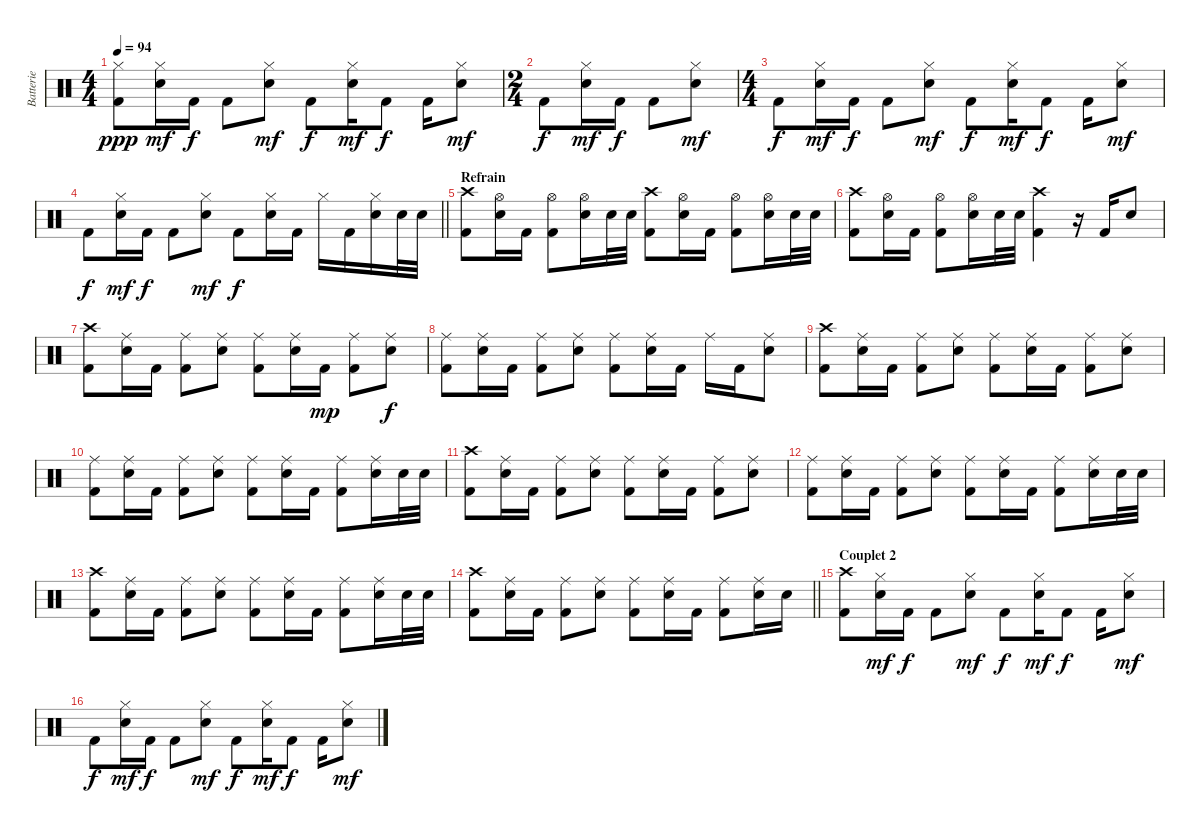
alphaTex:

\track ("Batterie" "Batterie") {instrument percussion}
\staff {score}
\articulation defaults
\ts (4 4)
\tempo 94
\clef neutral
\ks c
("Hi-Hat (closed)" "Kick (hit) 2").8{dy ppp} ("Hi-Hat (closed)" "Electric Snare (hit)").16{dy mf} "Kick (hit) 2".16{dy f} "Kick (hit) 2".8 ("Hi-Hat (closed)" "Electric Snare (hit)").8{dy mf} "Kick (hit) 2".8{dy f} ("Hi-Hat (closed)" "Electric Snare (hit)").16{dy mf} "Kick (hit) 2".8{dy f} "Kick (hit) 2".16 ("Hi-Hat (closed)" "Electric Snare (hit)").8{dy mf} |
\ts (2 4)
"Kick (hit) 2".8{dy f} ("Hi-Hat (closed)" "Electric Snare (hit)").16{dy mf} "Kick (hit) 2".16{dy f} "Kick (hit) 2".8 ("Hi-Hat (closed)" "Electric Snare (hit)").8{dy mf} |
\ts (4 4)
"Kick (hit) 2".8{dy f} ("Hi-Hat (closed)" "Electric Snare (hit)").16{dy mf} "Kick (hit) 2".16{dy f} "Kick (hit) 2".8 ("Hi-Hat (closed)" "Electric Snare (hit)").8{dy mf} "Kick (hit) 2".8{dy f} ("Hi-Hat (closed)" "Electric Snare (hit)").16{dy mf} "Kick (hit) 2".8{dy f} "Kick (hit) 2".16 ("Hi-Hat (closed)" "Electric Snare (hit)").8{dy mf} |
\barLineRight lightlight "Kick (hit) 2".8{dy f}
("Hi-Hat (closed)" "Electric Snare (hit)").16{dy mf} "Kick (hit) 2".16{dy f} "Kick (hit) 2".8 ("Hi-Hat (closed)" "Electric Snare (hit)").8{dy mf} "Kick (hit) 2".8{dy f} ("Hi-Hat (closed)" "Electric Snare (hit)").16 "Kick (hit) 2".16 "Hi-Hat (closed)".16 "Kick (hit) 2".16 ("Hi-Hat (closed)" "Electric Snare (hit)").16 "Electric Snare (hit)".32 "Electric Snare (hit)".32 |
\section ("" "Refrain")
("Crash high (hit)" "Kick (hit) 2").8 ("Hi-Hat (open)" "Electric Snare (hit)").16 "Kick (hit) 2".16 ("Hi-Hat (open)" "Kick (hit) 2").8 ("Hi-Hat (open)" "Electric Snare (hit)").16 "Electric Snare (hit)".32 "Electric Snare (hit)".32 ("Crash high (hit)" "Kick (hit) 2").8 ("Hi-Hat (open)" "Electric Snare (hit)").16 "Kick (hit) 2".16 ("Hi-Hat (open)" "Kick (hit) 2").8 ("Hi-Hat (open)" "Electric Snare (hit)").16 "Electric Snare (hit)".32 "Electric Snare (hit)".32 |
("Crash high (hit)" "Kick (hit) 2").8 ("Hi-Hat (open)" "Electric Snare (hit)").16 "Kick (hit) 2".16 ("Hi-Hat (open)" "Kick (hit) 2").8 ("Hi-Hat (open)" "Electric Snare (hit)").16 "Electric Snare (hit)".32 "Electric Snare (hit)".32 ("Crash high (hit)" "Kick (hit) 2").4 r.16 "Kick (hit) 2".16 "Electric Snare (hit)".8 |
("Crash high (hit)" "Kick (hit) 2").8 ("Ride (middle)" "Electric Snare (hit)").16 "Kick (hit) 2".16 ("Ride (middle)" "Kick (hit) 2").8 ("Ride (middle)" "Electric Snare (hit)").8 ("Ride (middle)" "Kick (hit) 2").8 ("Ride (middle)" "Electric Snare (hit)").16 "Kick (hit) 2".16{dy mp} ("Ride (middle)" "Kick (hit) 2").8 ("Ride (middle)" "Electric Snare (hit)").8{dy f} |
("Ride (middle)" "Kick (hit) 2").8 ("Ride (middle)" "Electric Snare (hit)").16 "Kick (hit) 2".16 ("Ride (middle)" "Kick (hit) 2").8 ("Ride (middle)" "Electric Snare (hit)").8 ("Ride (middle)" "Kick (hit) 2").8 ("Ride (middle)" "Electric Snare (hit)").16 "Kick (hit) 2".16 "Ride (middle)".16 "Kick (hit) 2".16 ("Ride (middle)" "Electric Snare (hit)").8 |
("Crash high (hit)" "Kick (hit) 2").8 ("Ride (middle)" "Electric Snare (hit)").16 "Kick (hit) 2".16 ("Ride (middle)" "Kick (hit) 2").8 ("Ride (middle)" "Electric Snare (hit)").8 ("Ride (middle)" "Kick (hit) 2").8 ("Ride (middle)" "Electric Snare (hit)").16 "Kick (hit) 2".16 ("Ride (middle)" "Kick (hit) 2").8 ("Ride (middle)" "Electric Snare (hit)").8 |
("Ride (middle)" "Kick (hit) 2").8 ("Ride (middle)" "Electric Snare (hit)").16 "Kick (hit) 2".16 ("Ride (middle)" "Kick (hit) 2").8 ("Ride (middle)" "Electric Snare (hit)").8 ("Ride (middle)" "Kick (hit) 2").8 ("Ride (middle)" "Electric Snare (hit)").16 "Kick (hit) 2".16 ("Ride (middle)" "Kick (hit) 2").8 ("Ride (middle)" "Electric Snare (hit)").16 "Electric Snare (hit)".32 "Electric Snare (hit)".32 |
("Crash high (hit)" "Kick (hit) 2").8 ("Ride (middle)" "Electric Snare (hit)").16 "Kick (hit) 2".16 ("Ride (middle)" "Kick (hit) 2").8 ("Ride (middle)" "Electric Snare (hit)").8 ("Ride (middle)" "Kick (hit) 2").8 ("Ride (middle)" "Electric Snare (hit)").16 "Kick (hit) 2".16 ("Ride (middle)" "Kick (hit) 2").8 ("Ride (middle)" "Electric Snare (hit)").8 |
("Ride (middle)" "Kick (hit) 2").8 ("Ride (middle)" "Electric Snare (hit)").16 "Kick (hit) 2".16 ("Ride (middle)" "Kick (hit) 2").8 ("Ride (middle)" "Electric Snare (hit)").8 ("Ride (middle)" "Kick (hit) 2").8 ("Ride (middle)" "Electric Snare (hit)").16 "Kick (hit) 2".16 ("Ride (middle)" "Kick (hit) 2").8 ("Ride (middle)" "Electric Snare (hit)").16 "Electric Snare (hit)".32 "Electric Snare (hit)".32 |
("Crash high (hit)" "Kick (hit) 2").8 ("Ride (middle)" "Electric Snare (hit)").16 "Kick (hit) 2".16 ("Ride (middle)" "Kick (hit) 2").8 ("Ride (middle)" "Electric Snare (hit)").8 ("Ride (middle)" "Kick (hit) 2").8 ("Ride (middle)" "Electric Snare (hit)").16 "Kick (hit) 2".16 ("Ride (middle)" "Kick (hit) 2").8 ("Ride (middle)" "Electric Snare (hit)").16 "Electric Snare (hit)".32 "Electric Snare (hit)".32 |
\barLineRight lightlight
("Crash high (hit)" "Kick (hit) 2").8 ("Ride (middle)" "Electric Snare (hit)").16 "Kick (hit) 2".16 ("Ride (middle)" "Kick (hit) 2").8 ("Ride (middle)" "Electric Snare (hit)").8 ("Ride (middle)" "Kick (hit) 2").8 ("Ride (middle)" "Electric Snare (hit)").16 "Kick (hit) 2".16 ("Ride (middle)" "Kick (hit) 2").8 ("Ride (middle)" "Electric Snare (hit)").16 "Electric Snare (hit)".16 |
\section ("" "Couplet 2")
("Crash high (hit)" "Kick (hit) 2").8 ("Hi-Hat (closed)" "Electric Snare (hit)").16{dy mf} "Kick (hit) 2".16{dy f} "Kick (hit) 2".8 ("Hi-Hat (closed)" "Electric Snare (hit)").8{dy mf} "Kick (hit) 2".8{dy f} ("Hi-Hat (closed)" "Electric Snare (hit)").16{dy mf} "Kick (hit) 2".8{dy f} "Kick (hit) 2".16 ("Hi-Hat (closed)" "Electric Snare (hit)").8{dy mf} |
"Kick (hit) 2".8{dy f} ("Hi-Hat (closed)" "Electric Snare (hit)").16{dy mf} "Kick (hit) 2".16{dy f} "Kick (hit) 2".8 ("Hi-Hat (closed)" "Electric Snare (hit)").8{dy mf} "Kick (hit) 2".8{dy f} ("Hi-Hat (closed)" "Electric Snare (hit)").16{dy mf} "Kick (hit) 2".8{dy f} "Kick (hit) 2".16 ("Hi-Hat (closed)" "Electric Snare (hit)").8{dy mf}
